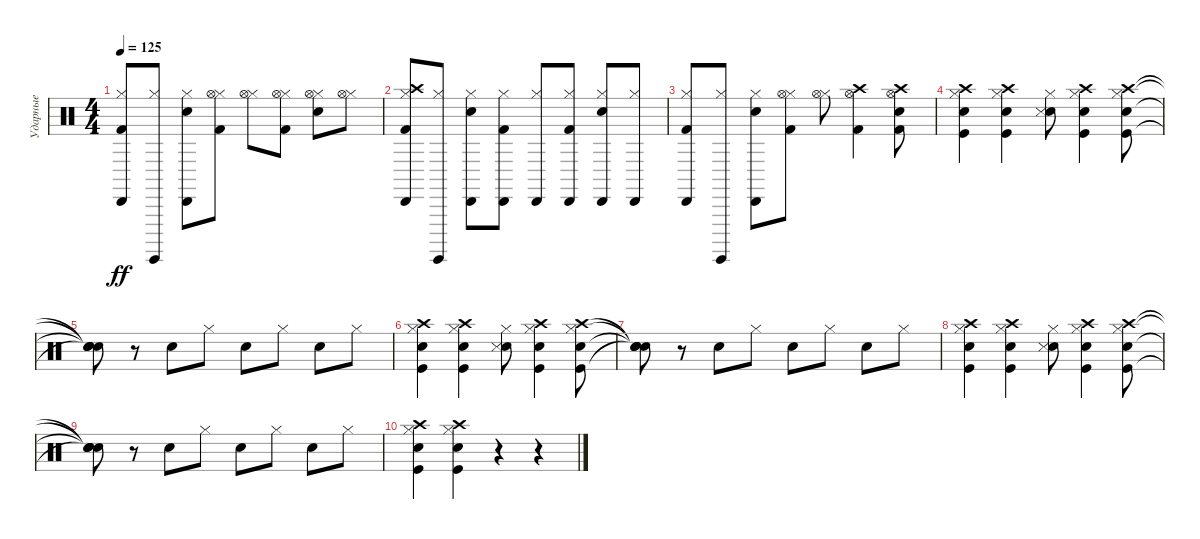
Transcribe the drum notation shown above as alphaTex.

\track ("Ударные" "Ударные") {instrument percussion}
\staff {score}
\articulation defaults
\ts (4 4)
\tempo 125
\clef neutral
\ks c
("Hi-Hat (closed)" "Cabasa (hit)" "Kick (hit) 2").8{dy ff} ("Hi-Hat (closed)" "Surdo (hit)").8 ("Hi-Hat (closed)" "Cabasa (hit)" "Snare (hit) 2").8 ("Hi-Hat (closed)" "Hi-Hat (open)" "Kick (hit) 2").8 ("Hi-Hat (closed)" "Hi-Hat (open)").8 ("Hi-Hat (closed)" "Hi-Hat (open)" "Kick (hit) 2").8 ("Hi-Hat (closed)" "Hi-Hat (open)" "Snare (hit) 2").8 ("Hi-Hat (closed)" "Hi-Hat (open)").8 |
("Crash high (hit)" "Hi-Hat (closed)" "Cabasa (hit)" "Kick (hit) 2").8 ("Hi-Hat (closed)" "Surdo (hit)").8 ("Hi-Hat (closed)" "Cabasa (hit)" "Snare (hit) 2").8 ("Hi-Hat (closed)" "Cabasa (hit)" "Kick (hit) 2").8 ("Hi-Hat (closed)" "Cabasa (hit)").8 ("Hi-Hat (closed)" "Cabasa (hit)" "Kick (hit) 2").8 ("Hi-Hat (closed)" "Cabasa (hit)" "Snare (hit) 2").8 ("Hi-Hat (closed)" "Cabasa (hit)").8 |
("Hi-Hat (closed)" "Cabasa (hit)" "Kick (hit) 2").8 ("Hi-Hat (closed)" "Surdo (hit)").8 ("Hi-Hat (closed)" "Cabasa (hit)" "Snare (hit) 2").8 ("Hi-Hat (closed)" "Hi-Hat (open)" "Kick (hit) 2").8 ("Hi-Hat (closed)" "Hi-Hat (open)").8 ("Crash high (hit)" "Hi-Hat (open)" "Kick (hit) 2").4 ("Crash high (hit)" "Hi-Hat (open)" "Snare (hit) 2" "Kick (hit) 2").8 |
("Crash high (hit)" "Hi-Hat (closed)" "Snare (hit) 2" "Kick (hit)").4 ("Crash high (hit)" "Hi-Hat (closed)" "Snare (hit) 2" "Kick (hit)").4 ("Snare (hit) 2" "Snare (side stick) 3" "Hi-Hat (closed)").8 ("Crash high (hit)" "Hi-Hat (closed)" "Snare (hit) 2" "Kick (hit)").4 ("Crash high (hit)" "Hi-Hat (closed)" "Snare (hit) 2" "Kick (hit)").8 |
("Snare (hit)"{t} "Snare (hit)"{t} "Snare (hit)"{t} "Snare (hit)"{t}).8 r.8 "Snare (hit) 2".8 "Hi-Hat (closed)".8 "Snare (hit) 2".8 "Hi-Hat (closed)".8 "Snare (hit) 2".8 "Hi-Hat (closed)".8 |
("Crash high (hit)" "Hi-Hat (closed)" "Snare (hit) 2" "Kick (hit)").4 ("Crash high (hit)" "Hi-Hat (closed)" "Snare (hit) 2" "Kick (hit)").4 ("Snare (hit) 2" "Snare (side stick) 3" "Hi-Hat (closed)").8 ("Crash high (hit)" "Hi-Hat (closed)" "Snare (hit) 2" "Kick (hit)").4 ("Crash high (hit)" "Hi-Hat (closed)" "Snare (hit) 2" "Kick (hit)").8 |
("Snare (hit)"{t} "Snare (hit)"{t} "Snare (hit)"{t} "Snare (hit)"{t}).8 r.8 "Snare (hit) 2".8 "Hi-Hat (closed)".8 "Snare (hit) 2".8 "Hi-Hat (closed)".8 "Snare (hit) 2".8 "Hi-Hat (closed)".8 |
("Crash high (hit)" "Hi-Hat (closed)" "Snare (hit) 2" "Kick (hit)").4 ("Crash high (hit)" "Hi-Hat (closed)" "Snare (hit) 2" "Kick (hit)").4 ("Snare (hit) 2" "Snare (side stick) 3" "Hi-Hat (closed)").8 ("Crash high (hit)" "Hi-Hat (closed)" "Snare (hit) 2" "Kick (hit)").4 ("Crash high (hit)" "Hi-Hat (closed)" "Snare (hit) 2" "Kick (hit)").8 |
("Snare (hit)"{t} "Snare (hit)"{t} "Snare (hit)"{t} "Snare (hit)"{t}).8 r.8 "Snare (hit) 2".8 "Hi-Hat (closed)".8 "Snare (hit) 2".8 "Hi-Hat (closed)".8 "Snare (hit) 2".8 "Hi-Hat (closed)".8 |
("Crash high (hit)" "Hi-Hat (closed)" "Snare (hit) 2" "Kick (hit)").4 ("Crash high (hit)" "Hi-Hat (closed)" "Snare (hit) 2" "Kick (hit)").4 r.4 r.4
